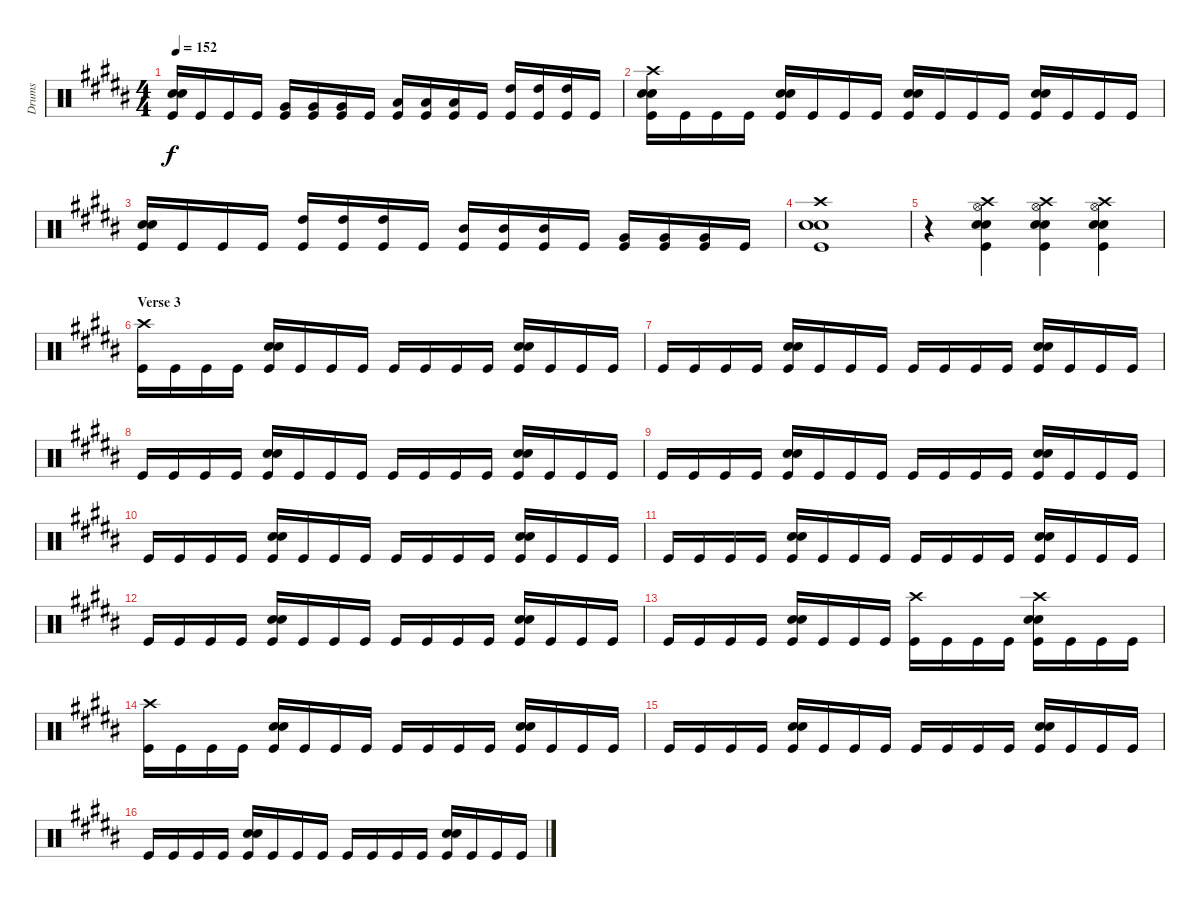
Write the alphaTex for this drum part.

\track ("Drums" "Drums") {instrument percussion}
\staff {score}
\articulation defaults
\ts (4 4)
\tempo 152
\clef neutral
\ks b
("Snare (hit) 2" "Electric Snare (hit)" "Kick (hit)").16{dy f} "Kick (hit)".16 "Kick (hit)".16 "Kick (hit)".16 ("Very Low Tom (hit)" "Kick (hit)").16 ("Very Low Tom (hit)" "Kick (hit)").16 ("Very Low Tom (hit)" "Kick (hit)").16 "Kick (hit)".16 ("Low Tom (hit)" "Kick (hit)").16 ("Low Tom (hit)" "Kick (hit)").16 ("Low Tom (hit)" "Kick (hit)").16 "Kick (hit)".16 ("High Tom (hit)" "Kick (hit)").16 ("High Tom (hit)" "Kick (hit)").16 ("High Tom (hit)" "Kick (hit)").16 "Kick (hit)".16 |
("Crash high (hit)" "Snare (hit) 2" "Electric Snare (hit)" "Kick (hit)").16 "Kick (hit)".16 "Kick (hit)".16 "Kick (hit)".16 ("Snare (hit) 2" "Electric Snare (hit)" "Kick (hit)").16 "Kick (hit)".16 "Kick (hit)".16 "Kick (hit)".16 ("Snare (hit) 2" "Electric Snare (hit)" "Kick (hit)").16 "Kick (hit)".16 "Kick (hit)".16 "Kick (hit)".16 ("Snare (hit) 2" "Electric Snare (hit)" "Kick (hit)").16 "Kick (hit)".16 "Kick (hit)".16 "Kick (hit)".16 |
("Snare (hit) 2" "Electric Snare (hit)" "Kick (hit)").16 "Kick (hit)".16 "Kick (hit)".16 "Kick (hit)".16 ("High Tom (hit)" "Kick (hit)").16 ("High Tom (hit)" "Kick (hit)").16 ("High Tom (hit)" "Kick (hit)").16 "Kick (hit)".16 ("Mid Tom (hit)" "Kick (hit)").16 ("Mid Tom (hit)" "Kick (hit)").16 ("Mid Tom (hit)" "Kick (hit)").16 "Kick (hit)".16 ("Very Low Tom (hit)" "Kick (hit)").16 ("Very Low Tom (hit)" "Kick (hit)").16 ("Very Low Tom (hit)" "Kick (hit)").16 "Kick (hit)".16 |
("Crash high (hit)" "Snare (hit) 2" "Electric Snare (hit)" "Kick (hit)").1 |
r.4 ("Hi-Hat (open)" "Crash high (hit)" "Snare (hit) 2" "Electric Snare (hit)" "Kick (hit)").4 ("Hi-Hat (open)" "Crash high (hit)" "Snare (hit) 2" "Electric Snare (hit)" "Kick (hit)").4 ("Hi-Hat (open)" "Crash high (hit)" "Snare (hit) 2" "Electric Snare (hit)" "Kick (hit)").4 |
\section ("" "Verse 3")
("Crash high (hit)" "Kick (hit)").16 "Kick (hit)".16 "Kick (hit)".16 "Kick (hit)".16 ("Snare (hit) 2" "Electric Snare (hit)" "Kick (hit)").16 "Kick (hit)".16 "Kick (hit)".16 "Kick (hit)".16 "Kick (hit)".16 "Kick (hit)".16 "Kick (hit)".16 "Kick (hit)".16 ("Snare (hit) 2" "Electric Snare (hit)" "Kick (hit)").16 "Kick (hit)".16 "Kick (hit)".16 "Kick (hit)".16 |
"Kick (hit)".16 "Kick (hit)".16 "Kick (hit)".16 "Kick (hit)".16 ("Snare (hit) 2" "Electric Snare (hit)" "Kick (hit)").16 "Kick (hit)".16 "Kick (hit)".16 "Kick (hit)".16 "Kick (hit)".16 "Kick (hit)".16 "Kick (hit)".16 "Kick (hit)".16 ("Snare (hit) 2" "Electric Snare (hit)" "Kick (hit)").16 "Kick (hit)".16 "Kick (hit)".16 "Kick (hit)".16 |
"Kick (hit)".16 "Kick (hit)".16 "Kick (hit)".16 "Kick (hit)".16 ("Snare (hit) 2" "Electric Snare (hit)" "Kick (hit)").16 "Kick (hit)".16 "Kick (hit)".16 "Kick (hit)".16 "Kick (hit)".16 "Kick (hit)".16 "Kick (hit)".16 "Kick (hit)".16 ("Snare (hit) 2" "Electric Snare (hit)" "Kick (hit)").16 "Kick (hit)".16 "Kick (hit)".16 "Kick (hit)".16 |
"Kick (hit)".16 "Kick (hit)".16 "Kick (hit)".16 "Kick (hit)".16 ("Snare (hit) 2" "Electric Snare (hit)" "Kick (hit)").16 "Kick (hit)".16 "Kick (hit)".16 "Kick (hit)".16 "Kick (hit)".16 "Kick (hit)".16 "Kick (hit)".16 "Kick (hit)".16 ("Snare (hit) 2" "Electric Snare (hit)" "Kick (hit)").16 "Kick (hit)".16 "Kick (hit)".16 "Kick (hit)".16 |
"Kick (hit)".16 "Kick (hit)".16 "Kick (hit)".16 "Kick (hit)".16 ("Snare (hit) 2" "Electric Snare (hit)" "Kick (hit)").16 "Kick (hit)".16 "Kick (hit)".16 "Kick (hit)".16 "Kick (hit)".16 "Kick (hit)".16 "Kick (hit)".16 "Kick (hit)".16 ("Snare (hit) 2" "Electric Snare (hit)" "Kick (hit)").16 "Kick (hit)".16 "Kick (hit)".16 "Kick (hit)".16 |
"Kick (hit)".16 "Kick (hit)".16 "Kick (hit)".16 "Kick (hit)".16 ("Snare (hit) 2" "Electric Snare (hit)" "Kick (hit)").16 "Kick (hit)".16 "Kick (hit)".16 "Kick (hit)".16 "Kick (hit)".16 "Kick (hit)".16 "Kick (hit)".16 "Kick (hit)".16 ("Snare (hit) 2" "Electric Snare (hit)" "Kick (hit)").16 "Kick (hit)".16 "Kick (hit)".16 "Kick (hit)".16 |
"Kick (hit)".16 "Kick (hit)".16 "Kick (hit)".16 "Kick (hit)".16 ("Snare (hit) 2" "Electric Snare (hit)" "Kick (hit)").16 "Kick (hit)".16 "Kick (hit)".16 "Kick (hit)".16 "Kick (hit)".16 "Kick (hit)".16 "Kick (hit)".16 "Kick (hit)".16 ("Snare (hit) 2" "Electric Snare (hit)" "Kick (hit)").16 "Kick (hit)".16 "Kick (hit)".16 "Kick (hit)".16 |
"Kick (hit)".16 "Kick (hit)".16 "Kick (hit)".16 "Kick (hit)".16 ("Snare (hit) 2" "Electric Snare (hit)" "Kick (hit)").16 "Kick (hit)".16 "Kick (hit)".16 "Kick (hit)".16 ("Crash high (hit)" "Kick (hit)").16 "Kick (hit)".16 "Kick (hit)".16 "Kick (hit)".16 ("Crash high (hit)" "Snare (hit) 2" "Electric Snare (hit)" "Kick (hit)").16 "Kick (hit)".16 "Kick (hit)".16 "Kick (hit)".16 |
("Crash high (hit)" "Kick (hit)").16 "Kick (hit)".16 "Kick (hit)".16 "Kick (hit)".16 ("Snare (hit) 2" "Electric Snare (hit)" "Kick (hit)").16 "Kick (hit)".16 "Kick (hit)".16 "Kick (hit)".16 "Kick (hit)".16 "Kick (hit)".16 "Kick (hit)".16 "Kick (hit)".16 ("Snare (hit) 2" "Electric Snare (hit)" "Kick (hit)").16 "Kick (hit)".16 "Kick (hit)".16 "Kick (hit)".16 |
"Kick (hit)".16 "Kick (hit)".16 "Kick (hit)".16 "Kick (hit)".16 ("Snare (hit) 2" "Electric Snare (hit)" "Kick (hit)").16 "Kick (hit)".16 "Kick (hit)".16 "Kick (hit)".16 "Kick (hit)".16 "Kick (hit)".16 "Kick (hit)".16 "Kick (hit)".16 ("Snare (hit) 2" "Electric Snare (hit)" "Kick (hit)").16 "Kick (hit)".16 "Kick (hit)".16 "Kick (hit)".16 |
"Kick (hit)".16 "Kick (hit)".16 "Kick (hit)".16 "Kick (hit)".16 ("Snare (hit) 2" "Electric Snare (hit)" "Kick (hit)").16 "Kick (hit)".16 "Kick (hit)".16 "Kick (hit)".16 "Kick (hit)".16 "Kick (hit)".16 "Kick (hit)".16 "Kick (hit)".16 ("Snare (hit) 2" "Electric Snare (hit)" "Kick (hit)").16 "Kick (hit)".16 "Kick (hit)".16 "Kick (hit)".16
